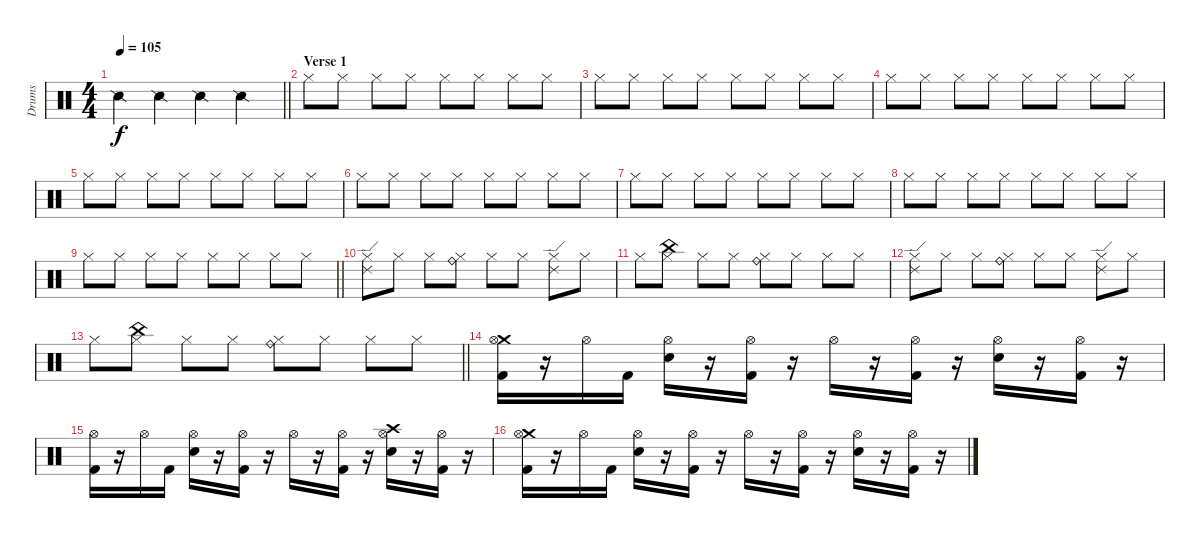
\track ("Drums" "Drums") {instrument percussion}
\staff {score}
\articulation defaults
\ts (4 4)
\tempo 105
\clef neutral
\barLineRight lightlight
\ks c "Snare (side stick) 2".4{dy f} "Snare (side stick) 2".4 "Snare (side stick) 2".4 "Snare (side stick) 2".4
|
\section ("" "Verse 1")
"Hi-Hat (closed)".8 "Hi-Hat (closed)".8 "Hi-Hat (closed)".8 "Hi-Hat (closed)".8 "Hi-Hat (closed)".8 "Hi-Hat (closed)".8 "Hi-Hat (closed)".8 "Hi-Hat (closed)".8 |
"Hi-Hat (closed)".8 "Hi-Hat (closed)".8 "Hi-Hat (closed)".8 "Hi-Hat (closed)".8 "Hi-Hat (closed)".8 "Hi-Hat (closed)".8 "Hi-Hat (closed)".8 "Hi-Hat (closed)".8 |
"Hi-Hat (closed)".8 "Hi-Hat (closed)".8 "Hi-Hat (closed)".8 "Hi-Hat (closed)".8 "Hi-Hat (closed)".8 "Hi-Hat (closed)".8 "Hi-Hat (closed)".8 "Hi-Hat (closed)".8 |
"Hi-Hat (closed)".8 "Hi-Hat (closed)".8 "Hi-Hat (closed)".8 "Hi-Hat (closed)".8 "Hi-Hat (closed)".8 "Hi-Hat (closed)".8 "Hi-Hat (closed)".8 "Hi-Hat (closed)".8 |
"Hi-Hat (closed)".8 "Hi-Hat (closed)".8 "Hi-Hat (closed)".8 "Hi-Hat (closed)".8 "Hi-Hat (closed)".8 "Hi-Hat (closed)".8 "Hi-Hat (closed)".8 "Hi-Hat (closed)".8 |
"Hi-Hat (closed)".8 "Hi-Hat (closed)".8 "Hi-Hat (closed)".8 "Hi-Hat (closed)".8 "Hi-Hat (closed)".8 "Hi-Hat (closed)".8 "Hi-Hat (closed)".8 "Hi-Hat (closed)".8 |
"Hi-Hat (closed)".8 "Hi-Hat (closed)".8 "Hi-Hat (closed)".8 "Hi-Hat (closed)".8 "Hi-Hat (closed)".8 "Hi-Hat (closed)".8 "Hi-Hat (closed)".8 "Hi-Hat (closed)".8 |
\barLineRight lightlight "Hi-Hat (closed)".8 "Hi-Hat (closed)".8 "Hi-Hat (closed)".8 "Hi-Hat (closed)".8 "Hi-Hat (closed)".8 "Hi-Hat (closed)".8 "Hi-Hat (closed)".8 "Hi-Hat (closed)".8
|
("Ride (edge) 2" "Hi-Hat (closed)").8 "Hi-Hat (closed)".8 "Hi-Hat (closed)".8 ("Ride (bell)" "Hi-Hat (closed)").8 "Hi-Hat (closed)".8 "Hi-Hat (closed)".8 ("Ride (edge) 2" "Hi-Hat (closed)").8 "Hi-Hat (closed)".8 |
"Hi-Hat (closed)".8 ("China (hit)" "Hi-Hat (closed)").8 "Hi-Hat (closed)".8 "Hi-Hat (closed)".8 ("Ride (bell)" "Hi-Hat (closed)").8 "Hi-Hat (closed)".8 "Hi-Hat (closed)".8 "Hi-Hat (closed)".8 |
("Ride (edge) 2" "Hi-Hat (closed)").8 "Hi-Hat (closed)".8 "Hi-Hat (closed)".8 ("Ride (bell)" "Hi-Hat (closed)").8 "Hi-Hat (closed)".8 "Hi-Hat (closed)".8 ("Ride (edge) 2" "Hi-Hat (closed)").8 "Hi-Hat (closed)".8 |
\barLineRight lightlight "Hi-Hat (closed)".8
("China (hit)" "Hi-Hat (closed)").8 "Hi-Hat (closed)".8 "Hi-Hat (closed)".8 ("Ride (bell)" "Hi-Hat (closed)").8 "Hi-Hat (closed)".8 "Hi-Hat (closed)".8 "Hi-Hat (closed)".8 |
("Crash medium (hit)" "Hi-Hat (open)" "Kick (hit) 2").16 r.16 "Hi-Hat (open)".16 "Kick (hit) 2".16 ("Hi-Hat (open)" "Electric Snare (hit)").16 r.16 ("Hi-Hat (open)" "Kick (hit) 2").16 r.16 "Hi-Hat (open)".16 r.16 ("Hi-Hat (open)" "Kick (hit) 2").16 r.16 ("Hi-Hat (open)" "Electric Snare (hit)").16 r.16 ("Hi-Hat (open)" "Kick (hit) 2").16 r.16 |
("Hi-Hat (open)" "Kick (hit) 2").16 r.16 "Hi-Hat (open)".16 "Kick (hit) 2".16 ("Hi-Hat (open)" "Electric Snare (hit)").16 r.16 ("Hi-Hat (open)" "Kick (hit) 2").16 r.16 "Hi-Hat (open)".16 r.16 ("Hi-Hat (open)" "Kick (hit) 2").16 r.16 ("Crash high (hit)" "Hi-Hat (open)" "Electric Snare (hit)").16 r.16 ("Hi-Hat (open)" "Kick (hit) 2").16 r.16 |
("Crash medium (hit)" "Hi-Hat (open)" "Kick (hit) 2").16 r.16 "Hi-Hat (open)".16 "Kick (hit) 2".16 ("Hi-Hat (open)" "Electric Snare (hit)").16 r.16 ("Hi-Hat (open)" "Kick (hit) 2").16 r.16 "Hi-Hat (open)".16 r.16 ("Hi-Hat (open)" "Kick (hit) 2").16 r.16 ("Hi-Hat (open)" "Electric Snare (hit)").16 r.16 ("Hi-Hat (open)" "Kick (hit) 2").16 r.16
